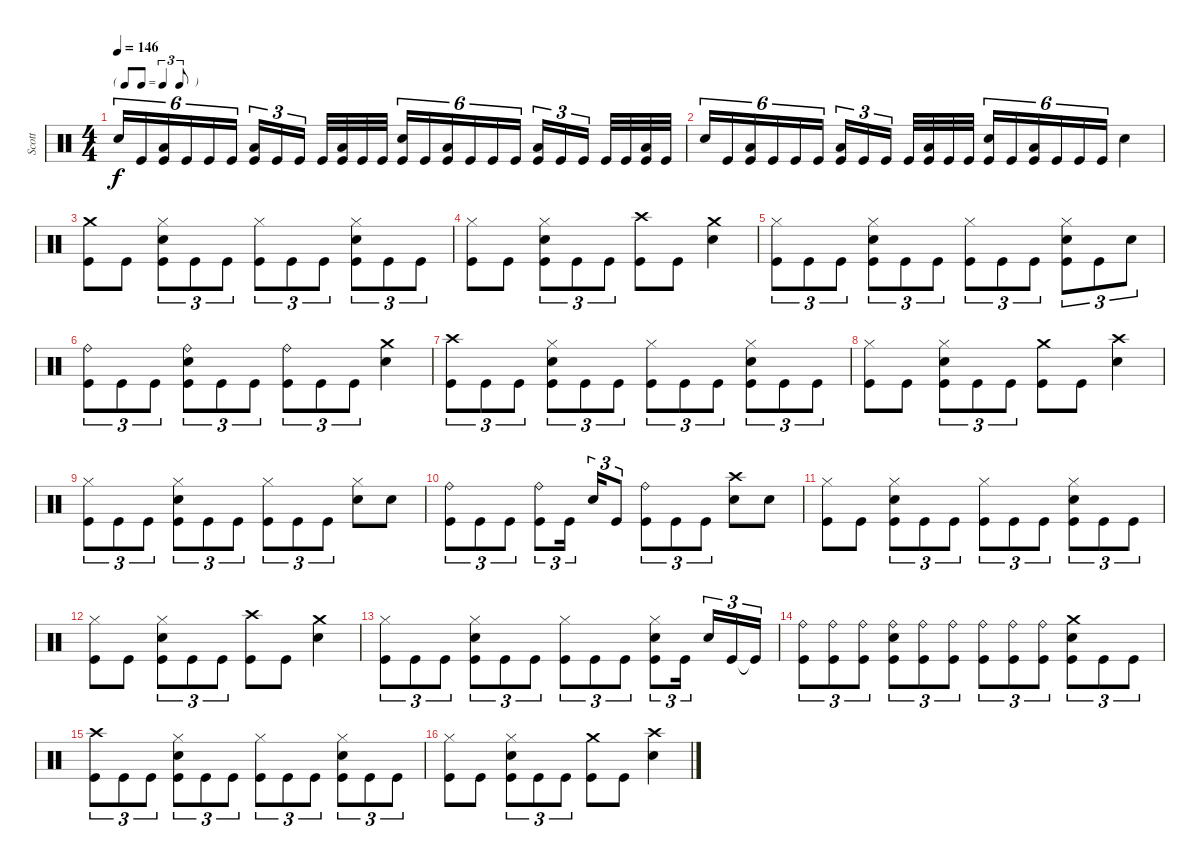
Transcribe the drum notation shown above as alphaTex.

\track ("Scott" "Scott") {instrument percussion}
\staff {score}
\articulation defaults
\ts (4 4)
\tf triplet8th
\tempo 146
\clef neutral
\ks c "Snare (hit) 2".16{tu (6 4) dy f} "Kick (hit)".16{tu (6 4)}
("Kick (hit)" "Low Tom (hit)").16{tu (6 4)} "Kick (hit)".16{tu (6 4)} "Kick (hit)".16{tu (6 4)} "Kick (hit)".16{tu (6 4)} ("Kick (hit)" "Low Tom (hit)").16{tu (3 2)} "Kick (hit)".16{tu (3 2)} "Kick (hit)".16{tu (3 2)} "Kick (hit)".32 ("Kick (hit)" "Low Tom (hit)").32 "Kick (hit)".32 "Kick (hit)".32 ("Kick (hit)" "Snare (hit) 2").16{tu (6 4)} "Kick (hit)".16{tu (6 4)} ("Kick (hit)" "Low Tom (hit)").16{tu (6 4)} "Kick (hit)".16{tu (6 4)} "Kick (hit)".16{tu (6 4)} "Kick (hit)".16{tu (6 4)} ("Kick (hit)" "Low Tom (hit)").16{tu (3 2)} "Kick (hit)".16{tu (3 2)} "Kick (hit)".16{tu (3 2)} "Kick (hit)".32 "Kick (hit)".32 ("Kick (hit)" "Low Tom (hit)").32 "Kick (hit)".32 |
"Snare (hit) 2".16{tu (6 4)} "Kick (hit)".16{tu (6 4)} ("Kick (hit)" "Low Tom (hit)").16{tu (6 4)} "Kick (hit)".16{tu (6 4)} "Kick (hit)".16{tu (6 4)} "Kick (hit)".16{tu (6 4)} ("Kick (hit)" "Low Tom (hit)").16{tu (3 2)} "Kick (hit)".16{tu (3 2)} "Kick (hit)".16{tu (3 2)} "Kick (hit)".32 ("Kick (hit)" "Low Tom (hit)").32 "Kick (hit)".32 "Kick (hit)".32 ("Kick (hit)" "Snare (hit) 2").16{tu (6 4)} "Kick (hit)".16{tu (6 4)} ("Kick (hit)" "Low Tom (hit)").16{tu (6 4)} "Kick (hit)".16{tu (6 4)} "Kick (hit)".16{tu (6 4)} "Kick (hit)".16{tu (6 4)} "Snare (hit) 2".4 |
("Kick (hit)" "Crash medium (hit)").8 "Kick (hit)".8 ("Kick (hit)" "Snare (hit) 2" "Hi-Hat (closed)").8{tu (3 2)} "Kick (hit)".8{tu (3 2)} "Kick (hit)".8{tu (3 2)} ("Kick (hit)" "Hi-Hat (closed)").8{tu (3 2)} "Kick (hit)".8{tu (3 2)} "Kick (hit)".8{tu (3 2)} ("Kick (hit)" "Snare (hit) 2" "Hi-Hat (closed)").8{tu (3 2)} "Kick (hit)".8{tu (3 2)} "Kick (hit)".8{tu (3 2)} |
("Kick (hit)" "Hi-Hat (closed)").8 "Kick (hit)".8 ("Kick (hit)" "Snare (hit) 2" "Hi-Hat (closed)").8{tu (3 2)} "Kick (hit)".8{tu (3 2)} "Kick (hit)".8{tu (3 2)} ("Kick (hit)" "Crash high (hit)").8 "Kick (hit)".8 ("Snare (hit) 2" "Crash medium (hit)").4 |
("Kick (hit)" "Hi-Hat (closed)").8{tu (3 2)} "Kick (hit)".8{tu (3 2)} "Kick (hit)".8{tu (3 2)} ("Kick (hit)" "Snare (hit) 2" "Hi-Hat (closed)").8{tu (3 2)} "Kick (hit)".8{tu (3 2)} "Kick (hit)".8{tu (3 2)} ("Kick (hit)" "Hi-Hat (closed)").8{tu (3 2)} "Kick (hit)".8{tu (3 2)} "Kick (hit)".8{tu (3 2)} ("Kick (hit)" "Snare (hit) 2" "Hi-Hat (closed)").8{tu (3 2)} "Kick (hit)".8{tu (3 2)} "Snare (hit) 2".8{tu (3 2)} |
("Kick (hit)" "Ride (bell)").8{tu (3 2)} "Kick (hit)".8{tu (3 2)} "Kick (hit)".8{tu (3 2)} ("Kick (hit)" "Snare (hit) 2" "Ride (bell)").8{tu (3 2)} "Kick (hit)".8{tu (3 2)} "Kick (hit)".8{tu (3 2)} ("Kick (hit)" "Ride (bell)").8{tu (3 2)} "Kick (hit)".8{tu (3 2)} "Kick (hit)".8{tu (3 2)} ("Snare (hit) 2" "Crash medium (hit)").4 |
("Kick (hit)" "Crash high (hit)").8{tu (3 2)} "Kick (hit)".8{tu (3 2)} "Kick (hit)".8{tu (3 2)} ("Kick (hit)" "Snare (hit) 2" "Hi-Hat (closed)").8{tu (3 2)} "Kick (hit)".8{tu (3 2)} "Kick (hit)".8{tu (3 2)} ("Kick (hit)" "Hi-Hat (closed)").8{tu (3 2)} "Kick (hit)".8{tu (3 2)} "Kick (hit)".8{tu (3 2)} ("Kick (hit)" "Snare (hit) 2" "Hi-Hat (closed)").8{tu (3 2)} "Kick (hit)".8{tu (3 2)} "Kick (hit)".8{tu (3 2)} |
("Kick (hit)" "Hi-Hat (closed)").8 "Kick (hit)".8 ("Kick (hit)" "Snare (hit) 2" "Hi-Hat (closed)").8{tu (3 2)} "Kick (hit)".8{tu (3 2)} "Kick (hit)".8{tu (3 2)} ("Kick (hit)" "Crash medium (hit)").8 "Kick (hit)".8 ("Snare (hit) 2" "Crash high (hit)").4 |
("Kick (hit)" "Hi-Hat (closed)").8{tu (3 2)} "Kick (hit)".8{tu (3 2)} "Kick (hit)".8{tu (3 2)} ("Kick (hit)" "Snare (hit) 2" "Hi-Hat (closed)").8{tu (3 2)} "Kick (hit)".8{tu (3 2)} "Kick (hit)".8{tu (3 2)} ("Kick (hit)" "Hi-Hat (closed)").8{tu (3 2)} "Kick (hit)".8{tu (3 2)} "Kick (hit)".8{tu (3 2)} ("Snare (hit) 2" "Hi-Hat (closed)").8 "Snare (hit) 2".8 |
("Kick (hit)" "Ride (bell)").8{tu (3 2)} "Kick (hit)".8{tu (3 2)} "Kick (hit)".8{tu (3 2)} ("Kick (hit)" "Ride (bell)").8{tu (3 2)} "Kick (hit)".16{tu (3 2)} "Snare (hit) 2".16{tu (3 2)} "Kick (hit)".8{tu (3 2)} ("Kick (hit)" "Ride (bell)").8{tu (3 2)} "Kick (hit)".8{tu (3 2)} "Kick (hit)".8{tu (3 2)} ("Snare (hit) 2" "Crash high (hit)").8 "Snare (hit) 2".8 |
("Kick (hit)" "Hi-Hat (closed)").8 "Kick (hit)".8 ("Kick (hit)" "Snare (hit) 2" "Hi-Hat (closed)").8{tu (3 2)} "Kick (hit)".8{tu (3 2)} "Kick (hit)".8{tu (3 2)} ("Kick (hit)" "Hi-Hat (closed)").8{tu (3 2)} "Kick (hit)".8{tu (3 2)} "Kick (hit)".8{tu (3 2)} ("Kick (hit)" "Snare (hit) 2" "Hi-Hat (closed)").8{tu (3 2)} "Kick (hit)".8{tu (3 2)} "Kick (hit)".8{tu (3 2)} |
("Kick (hit)" "Hi-Hat (closed)").8 "Kick (hit)".8 ("Kick (hit)" "Snare (hit) 2" "Hi-Hat (closed)").8{tu (3 2)} "Kick (hit)".8{tu (3 2)} "Kick (hit)".8{tu (3 2)} ("Kick (hit)" "Crash high (hit)").8 "Kick (hit)".8 ("Snare (hit) 2" "Crash medium (hit)").4 |
("Kick (hit)" "Hi-Hat (closed)").8{tu (3 2)} "Kick (hit)".8{tu (3 2)} "Kick (hit)".8{tu (3 2)} ("Kick (hit)" "Snare (hit) 2" "Hi-Hat (closed)").8{tu (3 2)} "Kick (hit)".8{tu (3 2)} "Kick (hit)".8{tu (3 2)} ("Kick (hit)" "Hi-Hat (closed)").8{tu (3 2)} "Kick (hit)".8{tu (3 2)} "Kick (hit)".8{tu (3 2)} ("Kick (hit)" "Snare (hit) 2" "Hi-Hat (closed)").8{tu (3 2)} "Kick (hit)".16{tu (3 2)} "Snare (hit) 2".16{tu (3 2)} "Kick (hit)".16{tu (3 2)} "Kick (hit)"{t}.16{tu (3 2)} |
("Kick (hit)" "Ride (bell)").8{tu (3 2)} ("Kick (hit)" "Ride (bell)").8{tu (3 2)} ("Kick (hit)" "Ride (bell)").8{tu (3 2)} ("Kick (hit)" "Snare (hit) 2" "Ride (bell)").8{tu (3 2)} ("Kick (hit)" "Ride (bell)").8{tu (3 2)} ("Kick (hit)" "Ride (bell)").8{tu (3 2)} ("Kick (hit)" "Ride (bell)").8{tu (3 2)} ("Kick (hit)" "Ride (bell)").8{tu (3 2)} ("Kick (hit)" "Ride (bell)").8{tu (3 2)} ("Kick (hit)" "Snare (hit) 2" "Crash medium (hit)").8{tu (3 2)} "Kick (hit)".8{tu (3 2)} "Kick (hit)".8{tu (3 2)} |
("Kick (hit)" "Crash high (hit)").8{tu (3 2)} "Kick (hit)".8{tu (3 2)} "Kick (hit)".8{tu (3 2)} ("Kick (hit)" "Snare (hit) 2" "Hi-Hat (closed)").8{tu (3 2)} "Kick (hit)".8{tu (3 2)} "Kick (hit)".8{tu (3 2)} ("Kick (hit)" "Hi-Hat (closed)").8{tu (3 2)} "Kick (hit)".8{tu (3 2)} "Kick (hit)".8{tu (3 2)} ("Kick (hit)" "Snare (hit) 2" "Hi-Hat (closed)").8{tu (3 2)} "Kick (hit)".8{tu (3 2)} "Kick (hit)".8{tu (3 2)} |
("Kick (hit)" "Hi-Hat (closed)").8 "Kick (hit)".8 ("Kick (hit)" "Snare (hit) 2" "Hi-Hat (closed)").8{tu (3 2)} "Kick (hit)".8{tu (3 2)} "Kick (hit)".8{tu (3 2)} ("Kick (hit)" "Crash medium (hit)").8 "Kick (hit)".8 ("Snare (hit) 2" "Crash high (hit)").4
